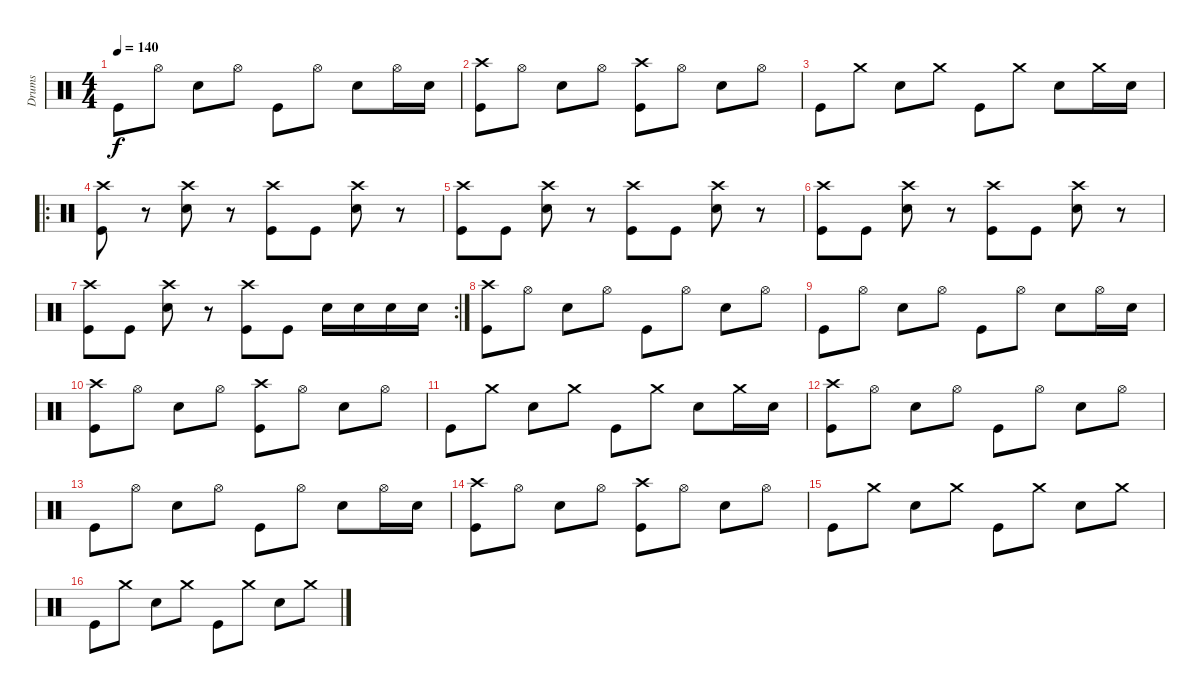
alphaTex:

\track ("Drums" "Drums") {instrument percussion}
\staff {score}
\articulation defaults
\ts (4 4)
\tempo 140
\clef neutral
\ks c "Kick (hit)".8{dy f} "Hi-Hat (open)".8 "Electric Snare (hit)".8 "Hi-Hat (open)".8 "Kick (hit)".8 "Hi-Hat (open)".8 "Electric Snare (hit)".8 "Hi-Hat (open)".16 "Electric Snare (hit)".16
|
("Crash high (hit)" "Kick (hit)").8 "Hi-Hat (open)".8 "Electric Snare (hit)".8 "Hi-Hat (open)".8 ("Crash high (hit)" "Kick (hit)").8 "Hi-Hat (open)".8 "Electric Snare (hit)".8 "Hi-Hat (open)".8 |
"Kick (hit)".8 "Crash medium (hit)".8 "Electric Snare (hit)".8 "Crash medium (hit)".8 "Kick (hit)".8 "Crash medium (hit)".8 "Electric Snare (hit)".8 "Crash medium (hit)".16 "Electric Snare (hit)".16 |
\ro
("Crash high (hit)" "Kick (hit)").8 r.8 ("Electric Snare (hit)" "Crash high (hit)").8 r.8 ("Crash high (hit)" "Kick (hit)").8 "Kick (hit)".8 ("Electric Snare (hit)" "Crash high (hit)").8 r.8 |
("Crash high (hit)" "Kick (hit)").8 "Kick (hit)".8 ("Electric Snare (hit)" "Crash high (hit)").8 r.8 ("Crash high (hit)" "Kick (hit)").8 "Kick (hit)".8 ("Crash high (hit)" "Electric Snare (hit)").8 r.8 |
("Crash high (hit)" "Kick (hit)").8 "Kick (hit)".8 ("Electric Snare (hit)" "Crash high (hit)").8 r.8 ("Crash high (hit)" "Kick (hit)").8 "Kick (hit)".8 ("Electric Snare (hit)" "Crash high (hit)").8 r.8 |
\rc 2
("Crash high (hit)" "Kick (hit)").8 "Kick (hit)".8 ("Electric Snare (hit)" "Crash high (hit)").8 r.8 ("Crash high (hit)" "Kick (hit)").8 "Kick (hit)".8 "Electric Snare (hit)".16 "Electric Snare (hit)".16 "Electric Snare (hit)".16 "Electric Snare (hit)".16 |
("Crash high (hit)" "Kick (hit)").8 "Hi-Hat (open)".8 "Electric Snare (hit)".8 "Hi-Hat (open)".8 "Kick (hit)".8 "Hi-Hat (open)".8 "Electric Snare (hit)".8 "Hi-Hat (open)".8 |
"Kick (hit)".8 "Hi-Hat (open)".8 "Electric Snare (hit)".8 "Hi-Hat (open)".8 "Kick (hit)".8 "Hi-Hat (open)".8 "Electric Snare (hit)".8 "Hi-Hat (open)".16 "Electric Snare (hit)".16 |
("Crash high (hit)" "Kick (hit)").8 "Hi-Hat (open)".8 "Electric Snare (hit)".8 "Hi-Hat (open)".8 ("Crash high (hit)" "Kick (hit)").8 "Hi-Hat (open)".8 "Electric Snare (hit)".8 "Hi-Hat (open)".8 |
"Kick (hit)".8 "Crash medium (hit)".8 "Electric Snare (hit)".8 "Crash medium (hit)".8 "Kick (hit)".8 "Crash medium (hit)".8 "Electric Snare (hit)".8 "Crash medium (hit)".16 "Electric Snare (hit)".16 |
("Crash high (hit)" "Kick (hit)").8 "Hi-Hat (open)".8 "Electric Snare (hit)".8 "Hi-Hat (open)".8 "Kick (hit)".8 "Hi-Hat (open)".8 "Electric Snare (hit)".8 "Hi-Hat (open)".8 |
"Kick (hit)".8 "Hi-Hat (open)".8 "Electric Snare (hit)".8 "Hi-Hat (open)".8 "Kick (hit)".8 "Hi-Hat (open)".8 "Electric Snare (hit)".8 "Hi-Hat (open)".16 "Electric Snare (hit)".16 |
("Crash high (hit)" "Kick (hit)").8 "Hi-Hat (open)".8 "Electric Snare (hit)".8 "Hi-Hat (open)".8 ("Crash high (hit)" "Kick (hit)").8 "Hi-Hat (open)".8 "Electric Snare (hit)".8 "Hi-Hat (open)".8 |
"Kick (hit)".8 "Crash medium (hit)".8 "Electric Snare (hit)".8 "Crash medium (hit)".8 "Kick (hit)".8 "Crash medium (hit)".8 "Electric Snare (hit)".8 "Crash medium (hit)".8 |
"Kick (hit)".8 "Crash medium (hit)".8 "Electric Snare (hit)".8 "Crash medium (hit)".8 "Kick (hit)".8 "Crash medium (hit)".8 "Electric Snare (hit)".8 "Crash medium (hit)".8
